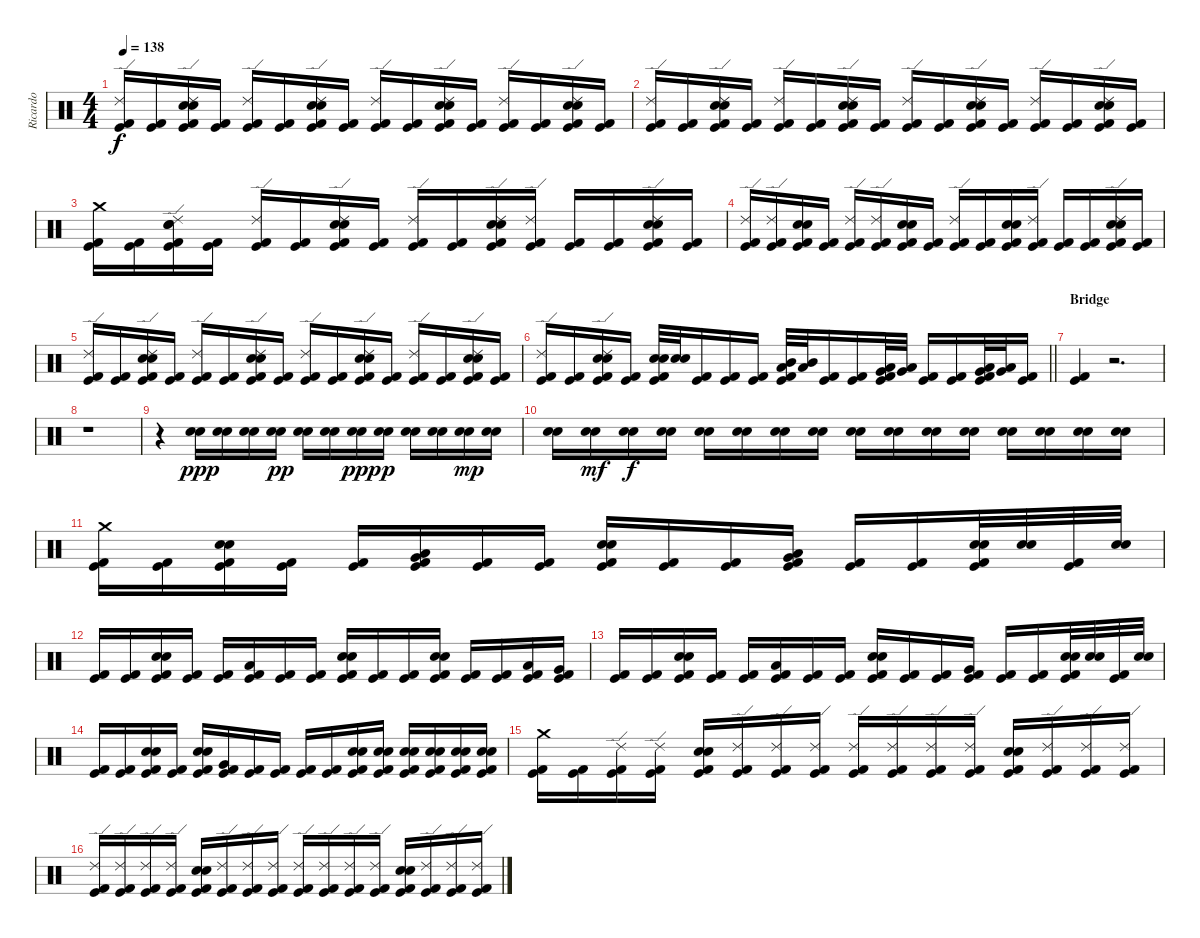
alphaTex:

\track ("Ricardo" "Ricardo") {instrument percussion}
\staff {score}
\articulation defaults
\ts (4 4)
\tempo 138
\clef neutral
\ks c
("Ride (edge) 2" "Kick (hit) 2" "Kick (hit)").16{dy f} ("Kick (hit) 2" "Kick (hit)").16 ("Electric Snare (hit)" "Snare (hit) 2" "Ride (edge) 2" "Kick (hit) 2" "Kick (hit)").16 ("Kick (hit) 2" "Kick (hit)").16 ("Ride (edge) 2" "Kick (hit) 2" "Kick (hit)").16 ("Kick (hit) 2" "Kick (hit)").16 ("Electric Snare (hit)" "Snare (hit) 2" "Ride (edge) 2" "Kick (hit) 2" "Kick (hit)").16 ("Kick (hit) 2" "Kick (hit)").16 ("Ride (edge) 2" "Kick (hit) 2" "Kick (hit)").16 ("Kick (hit) 2" "Kick (hit)").16 ("Electric Snare (hit)" "Snare (hit) 2" "Ride (edge) 2" "Kick (hit) 2" "Kick (hit)").16 ("Kick (hit) 2" "Kick (hit)").16 ("Ride (edge) 2" "Kick (hit) 2" "Kick (hit)").16 ("Kick (hit) 2" "Kick (hit)").16 ("Electric Snare (hit)" "Snare (hit) 2" "Ride (edge) 2" "Kick (hit) 2" "Kick (hit)").16 ("Kick (hit) 2" "Kick (hit)").16 |
("Ride (edge) 2" "Kick (hit) 2" "Kick (hit)").16 ("Kick (hit) 2" "Kick (hit)").16 ("Electric Snare (hit)" "Snare (hit) 2" "Ride (edge) 2" "Kick (hit) 2" "Kick (hit)").16 ("Kick (hit) 2" "Kick (hit)").16 ("Ride (edge) 2" "Kick (hit) 2" "Kick (hit)").16 ("Kick (hit) 2" "Kick (hit)").16 ("Electric Snare (hit)" "Snare (hit) 2" "Ride (edge) 2" "Kick (hit) 2" "Kick (hit)").16 ("Kick (hit) 2" "Kick (hit)").16 ("Ride (edge) 2" "Kick (hit) 2" "Kick (hit)").16 ("Kick (hit) 2" "Kick (hit)").16 ("Electric Snare (hit)" "Snare (hit) 2" "Ride (edge) 2" "Kick (hit) 2" "Kick (hit)").16 ("Kick (hit) 2" "Kick (hit)").16 ("Ride (edge) 2" "Kick (hit) 2" "Kick (hit)").16 ("Kick (hit) 2" "Kick (hit)").16 ("Electric Snare (hit)" "Snare (hit) 2" "Ride (edge) 2" "Kick (hit) 2" "Kick (hit)").16 ("Kick (hit) 2" "Kick (hit)").16 |
("Crash medium (hit)" "Kick (hit) 2" "Kick (hit)").16 ("Kick (hit) 2" "Kick (hit)").16 ("Electric Snare (hit)" "Snare (hit) 2" "Ride (edge) 2" "Kick (hit) 2" "Kick (hit)").16 ("Kick (hit) 2" "Kick (hit)").16 ("Ride (edge) 2" "Kick (hit) 2" "Kick (hit)").16 ("Kick (hit) 2" "Kick (hit)").16 ("Electric Snare (hit)" "Snare (hit) 2" "Ride (edge) 2" "Kick (hit) 2" "Kick (hit)").16 ("Kick (hit) 2" "Kick (hit)").16 ("Ride (edge) 2" "Kick (hit) 2" "Kick (hit)").16 ("Kick (hit) 2" "Kick (hit)").16 ("Electric Snare (hit)" "Snare (hit) 2" "Ride (edge) 2" "Kick (hit) 2" "Kick (hit)").16 ("Ride (edge) 2" "Kick (hit) 2" "Kick (hit)").16 ("Kick (hit) 2" "Kick (hit)").16 ("Kick (hit) 2" "Kick (hit)").16 ("Electric Snare (hit)" "Snare (hit) 2" "Ride (edge) 2" "Kick (hit) 2" "Kick (hit)").16 ("Kick (hit) 2" "Kick (hit)").16 |
("Ride (edge) 2" "Kick (hit) 2" "Kick (hit)").16 ("Ride (edge) 2" "Kick (hit) 2" "Kick (hit)").16 ("Electric Snare (hit)" "Snare (hit) 2" "Kick (hit) 2" "Kick (hit)").16 ("Kick (hit) 2" "Kick (hit)").16 ("Ride (edge) 2" "Kick (hit) 2" "Kick (hit)").16 ("Ride (edge) 2" "Kick (hit) 2" "Kick (hit)").16 ("Electric Snare (hit)" "Snare (hit) 2" "Kick (hit) 2" "Kick (hit)").16 ("Kick (hit) 2" "Kick (hit)").16 ("Ride (edge) 2" "Kick (hit) 2" "Kick (hit)").16 ("Kick (hit) 2" "Kick (hit)").16 ("Electric Snare (hit)" "Snare (hit) 2" "Kick (hit) 2" "Kick (hit)").16 ("Ride (edge) 2" "Kick (hit) 2" "Kick (hit)").16 ("Kick (hit) 2" "Kick (hit)").16 ("Kick (hit) 2" "Kick (hit)").16 ("Electric Snare (hit)" "Snare (hit) 2" "Ride (edge) 2" "Kick (hit) 2" "Kick (hit)").16 ("Kick (hit) 2" "Kick (hit)").16 |
("Ride (edge) 2" "Kick (hit) 2" "Kick (hit)").16 ("Kick (hit) 2" "Kick (hit)").16 ("Electric Snare (hit)" "Snare (hit) 2" "Ride (edge) 2" "Kick (hit) 2" "Kick (hit)").16 ("Kick (hit) 2" "Kick (hit)").16 ("Ride (edge) 2" "Kick (hit) 2" "Kick (hit)").16 ("Kick (hit) 2" "Kick (hit)").16 ("Electric Snare (hit)" "Snare (hit) 2" "Ride (edge) 2" "Kick (hit) 2" "Kick (hit)").16 ("Kick (hit) 2" "Kick (hit)").16 ("Ride (edge) 2" "Kick (hit) 2" "Kick (hit)").16 ("Kick (hit) 2" "Kick (hit)").16 ("Electric Snare (hit)" "Snare (hit) 2" "Ride (edge) 2" "Kick (hit) 2" "Kick (hit)").16 ("Kick (hit) 2" "Kick (hit)").16 ("Ride (edge) 2" "Kick (hit) 2" "Kick (hit)").16 ("Kick (hit) 2" "Kick (hit)").16 ("Electric Snare (hit)" "Snare (hit) 2" "Ride (edge) 2" "Kick (hit) 2" "Kick (hit)").16 ("Kick (hit) 2" "Kick (hit)").16 |
\barLineRight lightlight
("Ride (edge) 2" "Kick (hit) 2" "Kick (hit)").16 ("Kick (hit) 2" "Kick (hit)").16 ("Electric Snare (hit)" "Snare (hit) 2" "Ride (edge) 2" "Kick (hit) 2" "Kick (hit)").16 ("Kick (hit) 2" "Kick (hit)").16 ("Electric Snare (hit)" "Snare (hit) 2" "Kick (hit) 2" "Kick (hit)").32 ("Snare (hit) 2" "Electric Snare (hit)").32 ("Kick (hit) 2" "Kick (hit)").16 ("Kick (hit) 2" "Kick (hit)").16 ("Kick (hit) 2" "Kick (hit)").16 ("Low Tom (hit)" "Mid Tom (hit)" "Kick (hit) 2" "Kick (hit)").32 ("Mid Tom (hit)" "Low Tom (hit)").32 ("Kick (hit) 2" "Kick (hit)").16 ("Kick (hit) 2" "Kick (hit)").16 ("Very Low Tom (hit)" "Low Tom (hit)" "Kick (hit) 2" "Kick (hit)").32 ("Low Tom (hit)" "Very Low Tom (hit)").32 ("Kick (hit) 2" "Kick (hit)").16 ("Kick (hit) 2" "Kick (hit)").16 ("Low Floor Tom (hit)" "Very Low Tom (hit)" "Kick (hit) 2" "Kick (hit)").32 ("Very Low Tom (hit)" "Low Floor Tom (hit)").32 ("Kick (hit) 2" "Kick (hit)").16 |
\section ("" "Bridge")
("Kick (hit)" "Kick (hit) 2").4 r.2{d} |
r.1 |
r.4 ("Snare (hit) 2" "Electric Snare (hit)").16{dy ppp} ("Electric Snare (hit)" "Snare (hit) 2").16 ("Electric Snare (hit)" "Snare (hit) 2").16 ("Electric Snare (hit)" "Snare (hit) 2").16{dy pp} ("Electric Snare (hit)" "Snare (hit) 2").16 ("Electric Snare (hit)" "Snare (hit) 2").16 ("Snare (hit) 2" "Electric Snare (hit)").16{dy ppp} ("Snare (hit) 2" "Electric Snare (hit)").16{dy p} ("Snare (hit) 2" "Electric Snare (hit)").16 ("Electric Snare (hit)" "Snare (hit) 2").16 ("Electric Snare (hit)" "Snare (hit) 2").16{dy mp} ("Electric Snare (hit)" "Snare (hit) 2").16 |
("Electric Snare (hit)" "Snare (hit) 2").16 ("Electric Snare (hit)" "Snare (hit) 2").16{dy mf} ("Electric Snare (hit)" "Snare (hit) 2").16{dy f} ("Electric Snare (hit)" "Snare (hit) 2").16 ("Electric Snare (hit)" "Snare (hit) 2").16 ("Electric Snare (hit)" "Snare (hit) 2").16 ("Electric Snare (hit)" "Snare (hit) 2").16 ("Electric Snare (hit)" "Snare (hit) 2").16 ("Electric Snare (hit)" "Snare (hit) 2").16 ("Electric Snare (hit)" "Snare (hit) 2").16 ("Electric Snare (hit)" "Snare (hit) 2").16 ("Electric Snare (hit)" "Snare (hit) 2").16 ("Electric Snare (hit)" "Snare (hit) 2").16 ("Electric Snare (hit)" "Snare (hit) 2").16 ("Electric Snare (hit)" "Snare (hit) 2").16 ("Electric Snare (hit)" "Snare (hit) 2").16 |
("Crash medium (hit)" "Kick (hit) 2" "Kick (hit)").16 ("Kick (hit) 2" "Kick (hit)").16 ("Electric Snare (hit)" "Snare (hit) 2" "Kick (hit) 2" "Kick (hit)").16 ("Kick (hit) 2" "Kick (hit)").16 ("Kick (hit) 2" "Kick (hit)").16 ("Low Tom (hit)" "Very Low Tom (hit)" "Kick (hit) 2" "Kick (hit)").16 ("Kick (hit) 2" "Kick (hit)").16 ("Kick (hit) 2" "Kick (hit)").16 ("Electric Snare (hit)" "Snare (hit) 2" "Kick (hit) 2" "Kick (hit)").16 ("Kick (hit) 2" "Kick (hit)").16 ("Kick (hit) 2" "Kick (hit)").16 ("Low Tom (hit)" "Very Low Tom (hit)" "Kick (hit) 2" "Kick (hit)").16 ("Kick (hit) 2" "Kick (hit)").16 ("Kick (hit) 2" "Kick (hit)").16 ("Electric Snare (hit)" "Snare (hit) 2" "Kick (hit) 2" "Kick (hit)").32 ("Electric Snare (hit)" "Snare (hit) 2").32 ("Kick (hit) 2" "Kick (hit)").32 ("Electric Snare (hit)" "Snare (hit) 2").32 |
("Kick (hit) 2" "Kick (hit)").16 ("Kick (hit) 2" "Kick (hit)").16 ("Electric Snare (hit)" "Snare (hit) 2" "Kick (hit) 2" "Kick (hit)").16 ("Kick (hit) 2" "Kick (hit)").16 ("Kick (hit) 2" "Kick (hit)").16 ("Low Tom (hit)" "Kick (hit) 2" "Kick (hit)").16 ("Kick (hit) 2" "Kick (hit)").16 ("Kick (hit) 2" "Kick (hit)").16 ("Electric Snare (hit)" "Snare (hit) 2" "Kick (hit) 2" "Kick (hit)").16 ("Kick (hit) 2" "Kick (hit)").16 ("Kick (hit) 2" "Kick (hit)").16 ("Electric Snare (hit)" "Snare (hit) 2" "Kick (hit) 2" "Kick (hit)").16 ("Kick (hit) 2" "Kick (hit)").16 ("Kick (hit) 2" "Kick (hit)").16 ("Low Tom (hit)" "Kick (hit) 2" "Kick (hit)").16 ("Very Low Tom (hit)" "Kick (hit) 2" "Kick (hit)").16 |
("Kick (hit) 2" "Kick (hit)").16 ("Kick (hit) 2" "Kick (hit)").16 ("Electric Snare (hit)" "Snare (hit) 2" "Kick (hit) 2" "Kick (hit)").16 ("Kick (hit) 2" "Kick (hit)").16 ("Kick (hit) 2" "Kick (hit)").16 ("Low Tom (hit)" "Kick (hit) 2" "Kick (hit)").16 ("Kick (hit) 2" "Kick (hit)").16 ("Kick (hit) 2" "Kick (hit)").16 ("Electric Snare (hit)" "Snare (hit) 2" "Kick (hit) 2" "Kick (hit)").16 ("Kick (hit) 2" "Kick (hit)").16 ("Kick (hit) 2" "Kick (hit)").16 ("Very Low Tom (hit)" "Kick (hit) 2" "Kick (hit)").16 ("Kick (hit) 2" "Kick (hit)").16 ("Kick (hit) 2" "Kick (hit)").16 ("Electric Snare (hit)" "Snare (hit) 2" "Kick (hit) 2" "Kick (hit)").32 ("Electric Snare (hit)" "Snare (hit) 2").32 ("Kick (hit) 2" "Kick (hit)").32 ("Electric Snare (hit)" "Snare (hit) 2").32 |
("Kick (hit) 2" "Kick (hit)").16 ("Kick (hit) 2" "Kick (hit)").16 ("Electric Snare (hit)" "Snare (hit) 2" "Kick (hit) 2" "Kick (hit)").16 ("Kick (hit) 2" "Kick (hit)").16 ("Electric Snare (hit)" "Snare (hit) 2" "Kick (hit) 2" "Kick (hit)").16 ("Very Low Tom (hit)" "Kick (hit) 2" "Kick (hit)").16 ("Kick (hit) 2" "Kick (hit)").16 ("Kick (hit) 2" "Kick (hit)").16 ("Kick (hit) 2" "Kick (hit)").16 ("Kick (hit) 2" "Kick (hit)").16 ("Snare (hit) 2" "Electric Snare (hit)" "Kick (hit) 2" "Kick (hit)").16 ("Snare (hit) 2" "Electric Snare (hit)" "Kick (hit) 2" "Kick (hit)").16 ("Snare (hit) 2" "Electric Snare (hit)" "Kick (hit) 2" "Kick (hit)").16 ("Snare (hit) 2" "Electric Snare (hit)" "Kick (hit) 2" "Kick (hit)").16 ("Snare (hit) 2" "Electric Snare (hit)" "Kick (hit) 2" "Kick (hit)").16 ("Snare (hit) 2" "Electric Snare (hit)" "Kick (hit) 2" "Kick (hit)").16 |
("Crash medium (hit)" "Kick (hit) 2" "Kick (hit)").16 ("Kick (hit) 2" "Kick (hit)").16 ("Ride (edge) 2" "Kick (hit) 2" "Kick (hit)").16 ("Ride (edge) 2" "Kick (hit) 2" "Kick (hit)").16 ("Electric Snare (hit)" "Snare (hit) 2" "Kick (hit) 2" "Kick (hit)").16 ("Ride (edge) 2" "Kick (hit) 2" "Kick (hit)").16 ("Ride (edge) 2" "Kick (hit) 2" "Kick (hit)").16 ("Ride (edge) 2" "Kick (hit) 2" "Kick (hit)").16 ("Ride (edge) 2" "Kick (hit) 2" "Kick (hit)").16 ("Ride (edge) 2" "Kick (hit) 2" "Kick (hit)").16 ("Ride (edge) 2" "Kick (hit) 2" "Kick (hit)").16 ("Ride (edge) 2" "Kick (hit) 2" "Kick (hit)").16 ("Electric Snare (hit)" "Snare (hit) 2" "Kick (hit) 2" "Kick (hit)").16 ("Ride (edge) 2" "Kick (hit) 2" "Kick (hit)").16 ("Ride (edge) 2" "Kick (hit) 2" "Kick (hit)").16 ("Ride (edge) 2" "Kick (hit) 2" "Kick (hit)").16 |
("Ride (edge) 2" "Kick (hit) 2" "Kick (hit)").16 ("Ride (edge) 2" "Kick (hit) 2" "Kick (hit)").16 ("Ride (edge) 2" "Kick (hit) 2" "Kick (hit)").16 ("Ride (edge) 2" "Kick (hit) 2" "Kick (hit)").16 ("Electric Snare (hit)" "Snare (hit) 2" "Kick (hit) 2" "Kick (hit)").16 ("Ride (edge) 2" "Kick (hit) 2" "Kick (hit)").16 ("Ride (edge) 2" "Kick (hit) 2" "Kick (hit)").16 ("Ride (edge) 2" "Kick (hit) 2" "Kick (hit)").16 ("Ride (edge) 2" "Kick (hit) 2" "Kick (hit)").16 ("Ride (edge) 2" "Kick (hit) 2" "Kick (hit)").16 ("Ride (edge) 2" "Kick (hit) 2" "Kick (hit)").16 ("Ride (edge) 2" "Kick (hit) 2" "Kick (hit)").16 ("Electric Snare (hit)" "Snare (hit) 2" "Kick (hit) 2" "Kick (hit)").16 ("Ride (edge) 2" "Kick (hit) 2" "Kick (hit)").16 ("Ride (edge) 2" "Kick (hit) 2" "Kick (hit)").16 ("Ride (edge) 2" "Kick (hit) 2" "Kick (hit)").16
